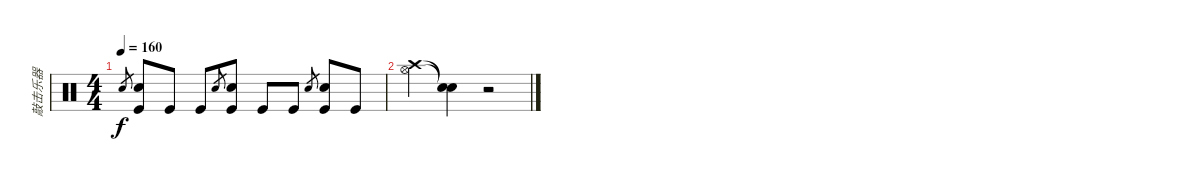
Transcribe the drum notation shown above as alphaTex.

\track ("敲击乐器" "敲击乐器") {instrument percussion}
\staff {score}
\articulation defaults
\ts (4 4)
\tempo 160
\clef neutral
\ks c "Snare (hit) 2".8{gr dy f}
("Snare (hit) 2" "Kick (hit)").8 "Kick (hit)".8 "Kick (hit)".8 "Snare (hit) 2".8{gr} ("Snare (hit) 2" "Kick (hit)").8 "Kick (hit)".8 "Kick (hit)".8 "Snare (hit) 2".8{gr} ("Snare (hit) 2" "Kick (hit)").8 "Kick (hit)".8 |
("Crash high (hit)" "Hi-Hat (open)").4 ("Snare (hit)"{t} "Snare (hit)"{t}).4 r.2
